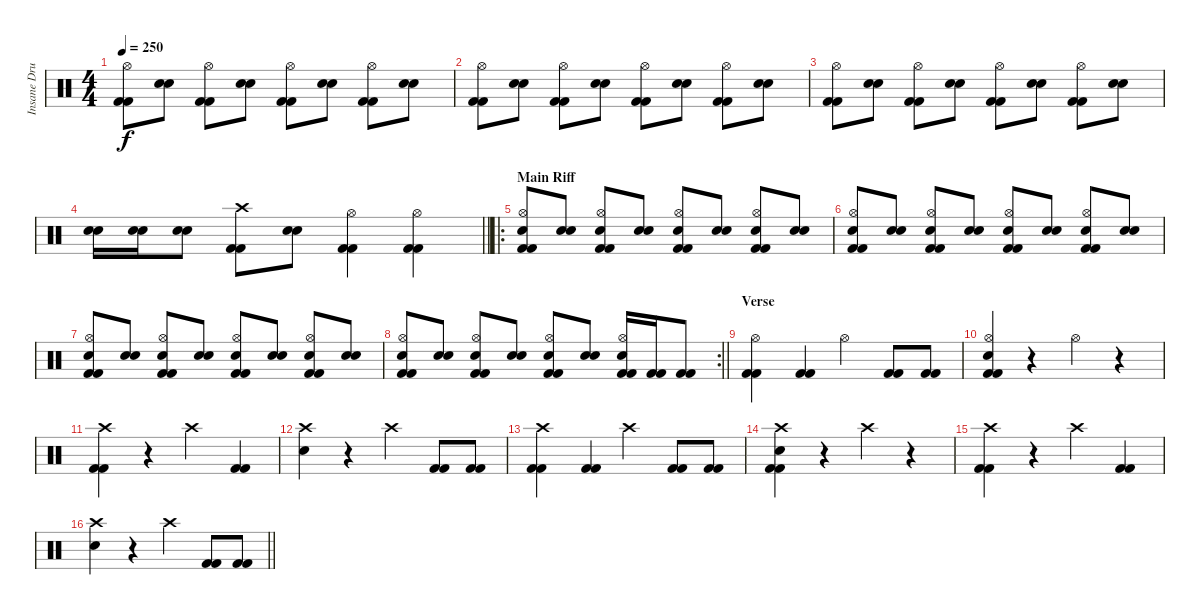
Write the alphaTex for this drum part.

\track ("Insane Drums" "Insane Dru") {instrument percussion}
\staff {score}
\articulation defaults
\ts (4 4)
\tempo 250
\clef neutral
\ks c
("Kick (hit) 2" "Kick (hit) 2" "Hi-Hat (open)").8{dy f} ("Electric Snare (hit)" "Electric Snare (hit)").8 ("Kick (hit) 2" "Kick (hit) 2" "Hi-Hat (open)").8 ("Electric Snare (hit)" "Electric Snare (hit)").8 ("Kick (hit) 2" "Kick (hit) 2" "Hi-Hat (open)").8 ("Electric Snare (hit)" "Electric Snare (hit)").8 ("Kick (hit) 2" "Kick (hit) 2" "Hi-Hat (open)").8 ("Electric Snare (hit)" "Electric Snare (hit)").8 |
("Kick (hit) 2" "Kick (hit) 2" "Hi-Hat (open)").8 ("Electric Snare (hit)" "Electric Snare (hit)").8 ("Kick (hit) 2" "Kick (hit) 2" "Hi-Hat (open)").8 ("Electric Snare (hit)" "Electric Snare (hit)").8 ("Kick (hit) 2" "Kick (hit) 2" "Hi-Hat (open)").8 ("Electric Snare (hit)" "Electric Snare (hit)").8 ("Kick (hit) 2" "Kick (hit) 2" "Hi-Hat (open)").8 ("Electric Snare (hit)" "Electric Snare (hit)").8 |
("Kick (hit) 2" "Kick (hit) 2" "Hi-Hat (open)").8 ("Electric Snare (hit)" "Electric Snare (hit)").8 ("Kick (hit) 2" "Kick (hit) 2" "Hi-Hat (open)").8 ("Electric Snare (hit)" "Electric Snare (hit)").8 ("Kick (hit) 2" "Kick (hit) 2" "Hi-Hat (open)").8 ("Electric Snare (hit)" "Electric Snare (hit)").8 ("Kick (hit) 2" "Kick (hit) 2" "Hi-Hat (open)").8 ("Electric Snare (hit)" "Electric Snare (hit)").8 |
\barLineRight lightlight
("Electric Snare (hit)" "Electric Snare (hit)").16 ("Electric Snare (hit)" "Electric Snare (hit)").16 ("Electric Snare (hit)" "Electric Snare (hit)").8 ("Kick (hit) 2" "Kick (hit) 2" "Crash high (hit)").8 ("Electric Snare (hit)" "Electric Snare (hit)").8 ("Kick (hit) 2" "Kick (hit) 2" "Hi-Hat (open)").4 ("Kick (hit) 2" "Kick (hit) 2" "Hi-Hat (open)").4 |
\ro
\section ("" "Main Riff")
("Kick (hit) 2" "Kick (hit) 2" "Electric Snare (hit)" "Hi-Hat (open)").8 ("Electric Snare (hit)" "Electric Snare (hit)").8 ("Kick (hit) 2" "Kick (hit) 2" "Electric Snare (hit)" "Hi-Hat (open)").8 ("Electric Snare (hit)" "Electric Snare (hit)").8 ("Kick (hit) 2" "Kick (hit) 2" "Electric Snare (hit)" "Hi-Hat (open)").8 ("Electric Snare (hit)" "Electric Snare (hit)").8 ("Kick (hit) 2" "Kick (hit) 2" "Electric Snare (hit)" "Hi-Hat (open)").8 ("Electric Snare (hit)" "Electric Snare (hit)").8 |
("Kick (hit) 2" "Kick (hit) 2" "Electric Snare (hit)" "Hi-Hat (open)").8 ("Electric Snare (hit)" "Electric Snare (hit)").8 ("Kick (hit) 2" "Kick (hit) 2" "Electric Snare (hit)" "Hi-Hat (open)").8 ("Electric Snare (hit)" "Electric Snare (hit)").8 ("Kick (hit) 2" "Kick (hit) 2" "Electric Snare (hit)" "Hi-Hat (open)").8 ("Electric Snare (hit)" "Electric Snare (hit)").8 ("Kick (hit) 2" "Kick (hit) 2" "Electric Snare (hit)" "Hi-Hat (open)").8 ("Electric Snare (hit)" "Electric Snare (hit)").8 |
("Kick (hit) 2" "Kick (hit) 2" "Electric Snare (hit)" "Hi-Hat (open)").8 ("Electric Snare (hit)" "Electric Snare (hit)").8 ("Kick (hit) 2" "Kick (hit) 2" "Electric Snare (hit)" "Hi-Hat (open)").8 ("Electric Snare (hit)" "Electric Snare (hit)").8 ("Kick (hit) 2" "Kick (hit) 2" "Electric Snare (hit)" "Hi-Hat (open)").8 ("Electric Snare (hit)" "Electric Snare (hit)").8 ("Kick (hit) 2" "Kick (hit) 2" "Electric Snare (hit)" "Hi-Hat (open)").8 ("Electric Snare (hit)" "Electric Snare (hit)").8 |
\rc 2
\barLineRight lightlight
("Kick (hit) 2" "Kick (hit) 2" "Electric Snare (hit)" "Hi-Hat (open)").8 ("Electric Snare (hit)" "Electric Snare (hit)").8 ("Kick (hit) 2" "Kick (hit) 2" "Electric Snare (hit)" "Hi-Hat (open)").8 ("Electric Snare (hit)" "Electric Snare (hit)").8 ("Kick (hit) 2" "Kick (hit) 2" "Electric Snare (hit)" "Hi-Hat (open)").8 ("Electric Snare (hit)" "Electric Snare (hit)").8 ("Kick (hit) 2" "Kick (hit) 2" "Electric Snare (hit)" "Hi-Hat (open)").16 ("Kick (hit) 2" "Kick (hit) 2").16 ("Kick (hit) 2" "Kick (hit) 2").8 |
\section ("" "Verse")
("Kick (hit) 2" "Kick (hit) 2" "Hi-Hat (open)").4 ("Kick (hit) 2" "Kick (hit) 2").4 "Hi-Hat (open)".4 ("Kick (hit) 2" "Kick (hit) 2").8 ("Kick (hit) 2" "Kick (hit) 2").8 |
("Kick (hit) 2" "Kick (hit) 2" "Electric Snare (hit)" "Hi-Hat (open)").4 r.4 "Hi-Hat (open)".4 r.4 |
("Kick (hit) 2" "Kick (hit) 2" "Crash high (hit)").4 r.4 "Crash high (hit)".4 ("Kick (hit) 2" "Kick (hit) 2").4 |
("Electric Snare (hit)" "Crash high (hit)").4 r.4 "Crash high (hit)".4 ("Kick (hit) 2" "Kick (hit) 2").8 ("Kick (hit) 2" "Kick (hit) 2").8 |
("Kick (hit) 2" "Kick (hit) 2" "Crash high (hit)").4 ("Kick (hit) 2" "Kick (hit) 2").4 "Crash high (hit)".4 ("Kick (hit) 2" "Kick (hit) 2").8 ("Kick (hit) 2" "Kick (hit) 2").8 |
("Kick (hit) 2" "Kick (hit) 2" "Electric Snare (hit)" "Crash high (hit)").4 r.4 "Crash high (hit)".4 r.4 |
("Kick (hit) 2" "Kick (hit) 2" "Crash high (hit)").4 r.4 "Crash high (hit)".4 ("Kick (hit) 2" "Kick (hit) 2").4 |
\barLineRight lightlight
("Electric Snare (hit)" "Crash high (hit)").4 r.4 "Crash high (hit)".4 ("Kick (hit) 2" "Kick (hit) 2").8 ("Kick (hit) 2" "Kick (hit) 2").8
